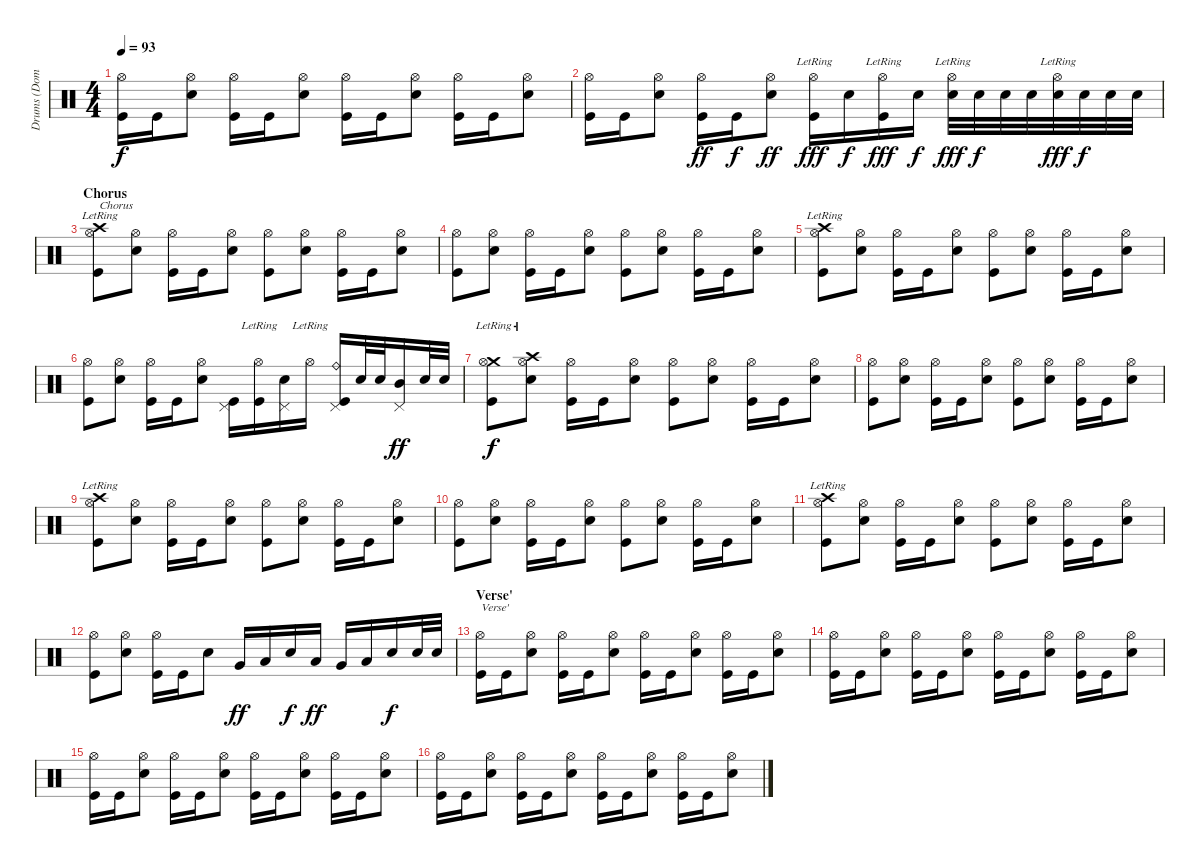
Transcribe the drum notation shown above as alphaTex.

\track ("Drums (Dominic Howard)" "Drums (Dom") {instrument percussion}
\staff {score}
\articulation defaults
\ts (4 4)
\tempo 93
\clef neutral
\ks c
("Hi-Hat (open)" "Kick (hit)").16{dy f} "Kick (hit)".16 ("Hi-Hat (open)" "Snare (hit) 2").8 ("Hi-Hat (open)" "Kick (hit)").16 "Kick (hit)".16 ("Hi-Hat (open)" "Snare (hit) 2").8 ("Hi-Hat (open)" "Kick (hit)").16 "Kick (hit)".16 ("Hi-Hat (open)" "Snare (hit) 2").8 ("Hi-Hat (open)" "Kick (hit)").16 "Kick (hit)".16 ("Hi-Hat (open)" "Snare (hit) 2").8 |
("Hi-Hat (open)" "Kick (hit)").16 "Kick (hit)".16 ("Hi-Hat (open)" "Snare (hit) 2").8 ("Hi-Hat (open)" "Kick (hit)").16{dy ff} "Kick (hit)".16{dy f} ("Hi-Hat (open)" "Snare (hit) 2").8{dy ff} ("Hi-Hat (open)"{lr} "Kick (hit)").16{dy fff} "Snare (hit) 2".16{dy f} ("Hi-Hat (open)"{lr} "Kick (hit)").16{dy fff} "Snare (hit) 2".16{dy f} ("Hi-Hat (open)"{lr} "Snare (hit) 2").32{dy fff} "Snare (hit) 2".32{dy f} "Snare (hit) 2".32 "Snare (hit) 2".32 ("Hi-Hat (open)"{lr} "Snare (hit) 2").32{dy fff} "Snare (hit) 2".32{dy f} "Snare (hit) 2".32 "Snare (hit) 2".32 |
\section ("" "Chorus")
("Crash high (hit)"{lr} "Hi-Hat (open)" "Kick (hit)").8{txt "Chorus"} ("Hi-Hat (open)" "Snare (hit) 2").8 ("Hi-Hat (open)" "Kick (hit)").16 "Kick (hit)".16 ("Hi-Hat (open)" "Snare (hit) 2").8 ("Hi-Hat (open)" "Kick (hit)").8 ("Hi-Hat (open)" "Snare (hit) 2").8 ("Hi-Hat (open)" "Kick (hit)").16 "Kick (hit)".16 ("Hi-Hat (open)" "Snare (hit) 2").8 |
("Hi-Hat (open)" "Kick (hit)").8 ("Hi-Hat (open)" "Snare (hit) 2").8 ("Hi-Hat (open)" "Kick (hit)").16 "Kick (hit)".16 ("Hi-Hat (open)" "Snare (hit) 2").8 ("Hi-Hat (open)" "Kick (hit)").8 ("Hi-Hat (open)" "Snare (hit) 2").8 ("Hi-Hat (open)" "Kick (hit)").16 "Kick (hit)".16 ("Hi-Hat (open)" "Snare (hit) 2").8 |
("Crash high (hit)"{lr} "Hi-Hat (open)" "Kick (hit)").8 ("Hi-Hat (open)" "Snare (hit) 2").8 ("Hi-Hat (open)" "Kick (hit)").16 "Kick (hit)".16 ("Hi-Hat (open)" "Snare (hit) 2").8 ("Hi-Hat (open)" "Kick (hit)").8 ("Hi-Hat (open)" "Snare (hit) 2").8 ("Hi-Hat (open)" "Kick (hit)").16 "Kick (hit)".16 ("Hi-Hat (open)" "Snare (hit) 2").8 |
("Hi-Hat (open)" "Kick (hit)").8 ("Hi-Hat (open)" "Snare (hit) 2").8 ("Hi-Hat (open)" "Kick (hit)").16 "Kick (hit)".16 ("Hi-Hat (open)" "Snare (hit) 2").8 ("Pedal Hi-Hat (hit)" "Kick (hit)").16 ("Hi-Hat (open)"{lr} "Kick (hit)").16 ("Pedal Hi-Hat (hit)" "Snare (hit) 2").16 "Hi-Hat (open)"{lr}.16 ("Pedal Hi-Hat (hit)" "Ride (bell)"{lr} "Kick (hit)").16 "Snare (hit) 2".32 "Snare (hit) 2".32 ("Pedal Hi-Hat (hit)" "Mid Tom (hit)").16{dy ff} "Snare (hit) 2".32 "Snare (hit) 2".32 |
("Crash medium (hit)"{lr} "Hi-Hat (open)" "Kick (hit)").8{dy f} ("Crash high (hit)"{lr} "Hi-Hat (open)" "Snare (hit) 2").8 ("Hi-Hat (open)" "Kick (hit)").16 "Kick (hit)".16 ("Hi-Hat (open)" "Snare (hit) 2").8 ("Hi-Hat (open)" "Kick (hit)").8 ("Hi-Hat (open)" "Snare (hit) 2").8 ("Hi-Hat (open)" "Kick (hit)").16 "Kick (hit)".16 ("Hi-Hat (open)" "Snare (hit) 2").8 |
("Hi-Hat (open)" "Kick (hit)").8 ("Hi-Hat (open)" "Snare (hit) 2").8 ("Hi-Hat (open)" "Kick (hit)").16 "Kick (hit)".16 ("Hi-Hat (open)" "Snare (hit) 2").8 ("Hi-Hat (open)" "Kick (hit)").8 ("Hi-Hat (open)" "Snare (hit) 2").8 ("Hi-Hat (open)" "Kick (hit)").16 "Kick (hit)".16 ("Hi-Hat (open)" "Snare (hit) 2").8 |
("Crash high (hit)"{lr} "Hi-Hat (open)" "Kick (hit)").8 ("Hi-Hat (open)" "Snare (hit) 2").8 ("Hi-Hat (open)" "Kick (hit)").16 "Kick (hit)".16 ("Hi-Hat (open)" "Snare (hit) 2").8 ("Hi-Hat (open)" "Kick (hit)").8 ("Hi-Hat (open)" "Snare (hit) 2").8 ("Hi-Hat (open)" "Kick (hit)").16 "Kick (hit)".16 ("Hi-Hat (open)" "Snare (hit) 2").8 |
("Hi-Hat (open)" "Kick (hit)").8 ("Hi-Hat (open)" "Snare (hit) 2").8 ("Hi-Hat (open)" "Kick (hit)").16 "Kick (hit)".16 ("Hi-Hat (open)" "Snare (hit) 2").8 ("Hi-Hat (open)" "Kick (hit)").8 ("Hi-Hat (open)" "Snare (hit) 2").8 ("Hi-Hat (open)" "Kick (hit)").16 "Kick (hit)".16 ("Hi-Hat (open)" "Snare (hit) 2").8 |
("Crash high (hit)"{lr} "Hi-Hat (open)" "Kick (hit)").8 ("Hi-Hat (open)" "Snare (hit) 2").8 ("Hi-Hat (open)" "Kick (hit)").16 "Kick (hit)".16 ("Hi-Hat (open)" "Snare (hit) 2").8 ("Hi-Hat (open)" "Kick (hit)").8 ("Hi-Hat (open)" "Snare (hit) 2").8 ("Hi-Hat (open)" "Kick (hit)").16 "Kick (hit)".16 ("Hi-Hat (open)" "Snare (hit) 2").8 |
("Hi-Hat (open)" "Kick (hit)").8 ("Hi-Hat (open)" "Snare (hit) 2").8 ("Hi-Hat (open)" "Kick (hit)").16 "Kick (hit)".16 "Snare (hit) 2".8 "Very Low Tom (hit)".16{dy ff} "Low Tom (hit)".16 "Snare (hit) 2".16{dy f} "Low Tom (hit)".16{dy ff} "Very Low Tom (hit)".16 "Low Tom (hit)".16 "Snare (hit) 2".16{dy f} "Snare (hit) 2".32 "Snare (hit) 2".32 |
\section ("" "Verse'")
("Hi-Hat (open)" "Kick (hit)").16{txt "Verse'"} "Kick (hit)".16 ("Hi-Hat (open)" "Snare (hit) 2").8 ("Hi-Hat (open)" "Kick (hit)").16 "Kick (hit)".16 ("Hi-Hat (open)" "Snare (hit) 2").8 ("Hi-Hat (open)" "Kick (hit)").16 "Kick (hit)".16 ("Hi-Hat (open)" "Snare (hit) 2").8 ("Hi-Hat (open)" "Kick (hit)").16 "Kick (hit)".16 ("Hi-Hat (open)" "Snare (hit) 2").8 |
("Hi-Hat (open)" "Kick (hit)").16 "Kick (hit)".16 ("Hi-Hat (open)" "Snare (hit) 2").8 ("Hi-Hat (open)" "Kick (hit)").16 "Kick (hit)".16 ("Hi-Hat (open)" "Snare (hit) 2").8 ("Hi-Hat (open)" "Kick (hit)").16 "Kick (hit)".16 ("Hi-Hat (open)" "Snare (hit) 2").8 ("Hi-Hat (open)" "Kick (hit)").16 "Kick (hit)".16 ("Hi-Hat (open)" "Snare (hit) 2").8 |
("Hi-Hat (open)" "Kick (hit)").16 "Kick (hit)".16 ("Hi-Hat (open)" "Snare (hit) 2").8 ("Hi-Hat (open)" "Kick (hit)").16 "Kick (hit)".16 ("Hi-Hat (open)" "Snare (hit) 2").8 ("Hi-Hat (open)" "Kick (hit)").16 "Kick (hit)".16 ("Hi-Hat (open)" "Snare (hit) 2").8 ("Hi-Hat (open)" "Kick (hit)").16 "Kick (hit)".16 ("Hi-Hat (open)" "Snare (hit) 2").8 |
("Hi-Hat (open)" "Kick (hit)").16 "Kick (hit)".16 ("Hi-Hat (open)" "Snare (hit) 2").8 ("Hi-Hat (open)" "Kick (hit)").16 "Kick (hit)".16 ("Hi-Hat (open)" "Snare (hit) 2").8 ("Hi-Hat (open)" "Kick (hit)").16 "Kick (hit)".16 ("Hi-Hat (open)" "Snare (hit) 2").8 ("Hi-Hat (open)" "Kick (hit)").16 "Kick (hit)".16 ("Hi-Hat (open)" "Snare (hit) 2").8
